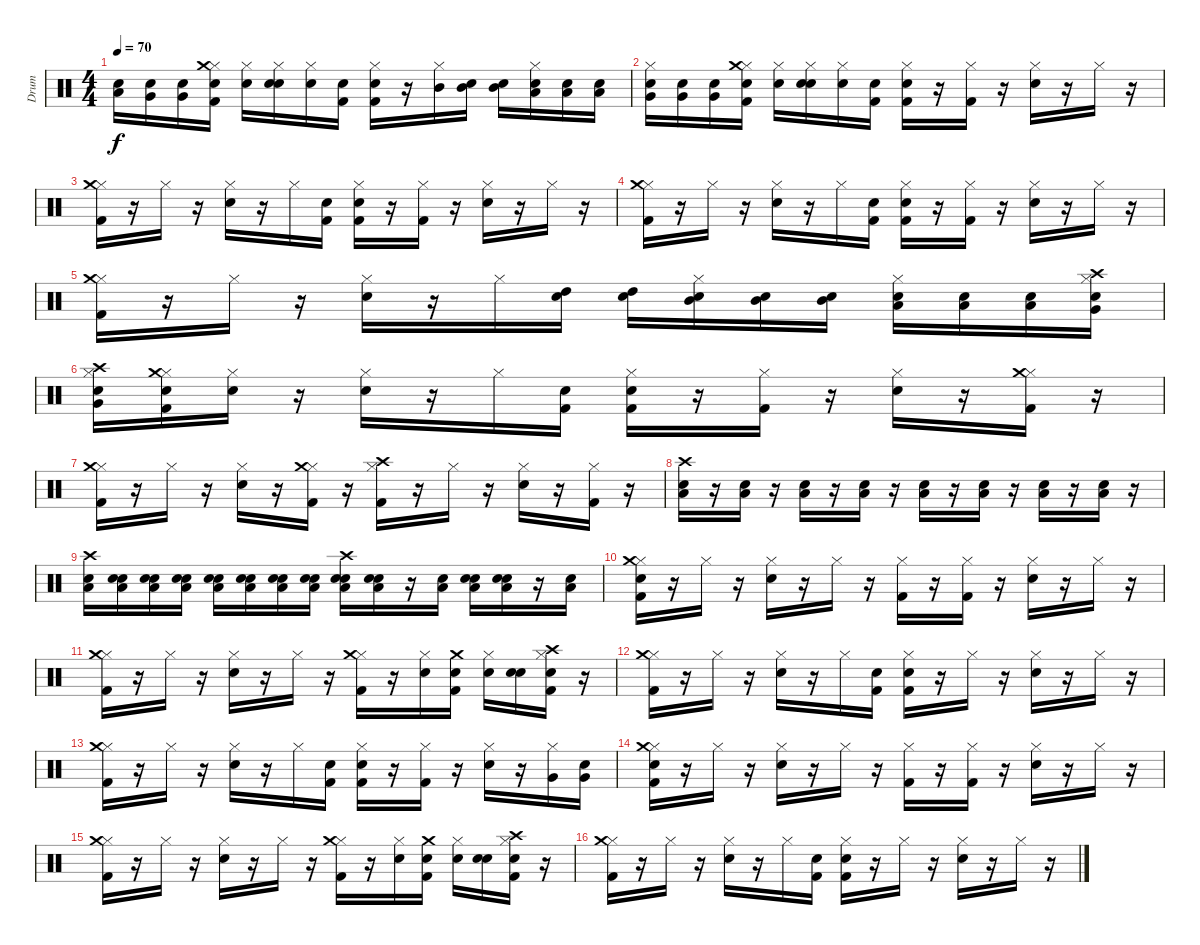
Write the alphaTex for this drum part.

\track ("Drum" "Drum") {instrument percussion}
\staff {score}
\articulation defaults
\ts (4 4)
\tempo 70
\clef neutral
\ks c
("Snare (hit)" "Low Tom (hit)").16{dy f} ("Snare (hit)" "Very Low Tom (hit)").16 ("Snare (hit)" "Very Low Tom (hit)").16 ("Snare (hit)" "Kick (hit) 2" "Hi-Hat (closed)" "Crash medium (hit)").16 ("Snare (hit)" "Hi-Hat (closed)").16 ("Snare (hit)" "Hi-Hat (closed)" "Snare (hit) 2").16 ("Snare (hit)" "Hi-Hat (closed)").16 ("Snare (hit)" "Kick (hit) 2").16 ("Snare (hit)" "Kick (hit) 2" "Hi-Hat (closed)").16 r.16 ("Hi-Hat (closed)" "Mid Tom (hit)").16 ("Snare (hit)" "Mid Tom (hit)").16 ("Snare (hit)" "Mid Tom (hit)").16 ("Snare (hit)" "Hi-Hat (closed)" "Low Tom (hit)").16 ("Snare (hit)" "Low Tom (hit)").16 ("Snare (hit)" "Low Tom (hit)").16 |
("Snare (hit)" "Hi-Hat (closed)" "Very Low Tom (hit)").16 ("Snare (hit)" "Very Low Tom (hit)").16 ("Snare (hit)" "Very Low Tom (hit)").16 ("Snare (hit)" "Kick (hit) 2" "Hi-Hat (closed)" "Crash medium (hit)").16 ("Snare (hit)" "Hi-Hat (closed)").16 ("Snare (hit)" "Hi-Hat (closed)" "Snare (hit) 2").16 ("Snare (hit)" "Hi-Hat (closed)").16 ("Snare (hit)" "Kick (hit) 2").16 ("Snare (hit)" "Kick (hit) 2" "Hi-Hat (closed)").16 r.16 ("Kick (hit) 2" "Hi-Hat (closed)").16 r.16 ("Hi-Hat (closed)" "Snare (hit) 2").16 r.16 "Hi-Hat (closed)".16 r.16 |
("Kick (hit) 2" "Hi-Hat (closed)" "Crash medium (hit)").16 r.16 "Hi-Hat (closed)".16 r.16 ("Hi-Hat (closed)" "Snare (hit) 2").16 r.16 "Hi-Hat (closed)".16 ("Snare (hit)" "Kick (hit) 2").16 ("Snare (hit)" "Kick (hit) 2" "Hi-Hat (closed)").16 r.16 ("Kick (hit) 2" "Hi-Hat (closed)").16 r.16 ("Hi-Hat (closed)" "Snare (hit) 2").16 r.16 "Hi-Hat (closed)".16 r.16 |
("Kick (hit) 2" "Hi-Hat (closed)" "Crash medium (hit)").16 r.16 "Hi-Hat (closed)".16 r.16 ("Hi-Hat (closed)" "Snare (hit) 2").16 r.16 "Hi-Hat (closed)".16 ("Snare (hit)" "Kick (hit) 2").16 ("Snare (hit)" "Kick (hit) 2" "Hi-Hat (closed)").16 r.16 ("Kick (hit) 2" "Hi-Hat (closed)").16 r.16 ("Hi-Hat (closed)" "Snare (hit) 2").16 r.16 "Hi-Hat (closed)".16 r.16 |
("Kick (hit) 2" "Hi-Hat (closed)" "Crash medium (hit)").16 r.16 "Hi-Hat (closed)".16 r.16 ("Hi-Hat (closed)" "Snare (hit) 2").16 r.16 "Hi-Hat (closed)".16 ("Snare (hit)" "High Tom (hit)").16 ("Snare (hit)" "High Tom (hit)").16 ("Snare (hit)" "Hi-Hat (closed)" "Mid Tom (hit)").16 ("Snare (hit)" "Mid Tom (hit)").16 ("Snare (hit)" "Mid Tom (hit)").16 ("Snare (hit)" "Hi-Hat (closed)" "Low Tom (hit)").16 ("Snare (hit)" "Low Tom (hit)").16 ("Snare (hit)" "Low Tom (hit)").16 ("Snare (hit)" "Hi-Hat (closed)" "Crash high (hit)" "Very Low Tom (hit)").16 |
("Snare (hit)" "Hi-Hat (closed)" "Crash high (hit)" "Very Low Tom (hit)").16 ("Snare (hit)" "Kick (hit) 2" "Hi-Hat (closed)" "Crash medium (hit)").16 ("Snare (hit)" "Hi-Hat (closed)").16 r.16 ("Hi-Hat (closed)" "Snare (hit) 2").16 r.16 "Hi-Hat (closed)".16 ("Snare (hit)" "Kick (hit) 2").16 ("Snare (hit)" "Kick (hit) 2" "Hi-Hat (closed)").16 r.16 ("Kick (hit) 2" "Hi-Hat (closed)").16 r.16 ("Hi-Hat (closed)" "Snare (hit) 2").16 r.16 ("Kick (hit) 2" "Hi-Hat (closed)" "Crash medium (hit)").16 r.16 |
("Kick (hit) 2" "Hi-Hat (closed)" "Crash medium (hit)").16 r.16 "Hi-Hat (closed)".16 r.16 ("Hi-Hat (closed)" "Snare (hit) 2").16 r.16 ("Kick (hit) 2" "Hi-Hat (closed)" "Crash medium (hit)").16 r.16 ("Kick (hit) 2" "Hi-Hat (closed)" "Crash high (hit)").16 r.16 "Hi-Hat (closed)".16 r.16 ("Hi-Hat (closed)" "Snare (hit) 2").16 r.16 ("Kick (hit) 2" "Hi-Hat (closed)").16 r.16 |
("Crash high (hit)" "Snare (hit) 2" "Low Tom (hit)").16 r.16 ("Snare (hit) 2" "Low Tom (hit)").16 r.16 ("Snare (hit) 2" "Low Tom (hit)").16 r.16 ("Snare (hit) 2" "Low Tom (hit)").16 r.16 ("Snare (hit) 2" "Low Tom (hit)").16 r.16 ("Snare (hit) 2" "Low Tom (hit)").16 r.16 ("Snare (hit) 2" "Low Tom (hit)").16 r.16 ("Snare (hit) 2" "Low Tom (hit)").16 r.16 |
("Crash high (hit)" "Snare (hit) 2" "Low Tom (hit)").16 ("Snare (hit)" "Snare (hit) 2" "Low Tom (hit)").16 ("Snare (hit)" "Snare (hit) 2" "Low Tom (hit)").16 ("Snare (hit)" "Snare (hit) 2" "Low Tom (hit)").16 ("Snare (hit)" "Snare (hit) 2" "Low Tom (hit)").16 ("Snare (hit)" "Snare (hit) 2" "Low Tom (hit)").16 ("Snare (hit)" "Snare (hit) 2" "Low Tom (hit)").16 ("Snare (hit)" "Snare (hit) 2" "Low Tom (hit)").16 ("Snare (hit)" "Crash high (hit)" "Snare (hit) 2" "Low Tom (hit)").16 ("Snare (hit)" "Snare (hit) 2" "Low Tom (hit)").16 r.16 ("Snare (hit) 2" "Low Tom (hit)").16 ("Snare (hit)" "Snare (hit) 2" "Low Tom (hit)").16 ("Snare (hit)" "Snare (hit) 2" "Low Tom (hit)").16 r.16 ("Snare (hit) 2" "Low Tom (hit)").16 |
("Snare (hit)" "Kick (hit) 2" "Hi-Hat (closed)" "Crash medium (hit)").16 r.16 "Hi-Hat (closed)".16 r.16 ("Hi-Hat (closed)" "Snare (hit) 2").16 r.16 "Hi-Hat (closed)".16 r.16 ("Kick (hit) 2" "Hi-Hat (closed)").16 r.16 ("Kick (hit) 2" "Hi-Hat (closed)").16 r.16 ("Hi-Hat (closed)" "Snare (hit) 2").16 r.16 "Hi-Hat (closed)".16 r.16 |
("Kick (hit) 2" "Hi-Hat (closed)" "Crash medium (hit)").16 r.16 "Hi-Hat (closed)".16 r.16 ("Hi-Hat (closed)" "Snare (hit) 2").16 r.16 "Hi-Hat (closed)".16 r.16 ("Kick (hit) 2" "Hi-Hat (closed)" "Crash medium (hit)").16 r.16 ("Hi-Hat (closed)" "Snare (hit) 2").16 ("Snare (hit)" "Kick (hit) 2" "Crash medium (hit)").16 ("Snare (hit)" "Hi-Hat (closed)").16 ("Snare (hit)" "Snare (hit) 2").16 ("Snare (hit)" "Kick (hit) 2" "Hi-Hat (closed)" "Crash high (hit)").16 r.16 |
("Kick (hit) 2" "Hi-Hat (closed)" "Crash medium (hit)").16 r.16 "Hi-Hat (closed)".16 r.16 ("Hi-Hat (closed)" "Snare (hit) 2").16 r.16 "Hi-Hat (closed)".16 ("Snare (hit)" "Kick (hit) 2").16 ("Snare (hit)" "Kick (hit) 2" "Hi-Hat (closed)").16 r.16 "Hi-Hat (closed)".16 r.16 ("Hi-Hat (closed)" "Snare (hit) 2").16 r.16 "Hi-Hat (closed)".16 r.16 |
("Kick (hit) 2" "Hi-Hat (closed)" "Crash medium (hit)").16 r.16 "Hi-Hat (closed)".16 r.16 ("Hi-Hat (closed)" "Snare (hit) 2").16 r.16 "Hi-Hat (closed)".16 ("Snare (hit)" "Kick (hit) 2").16 ("Snare (hit)" "Kick (hit) 2" "Hi-Hat (closed)").16 r.16 ("Kick (hit) 2" "Hi-Hat (closed)").16 r.16 ("Hi-Hat (closed)" "Snare (hit) 2").16 r.16 ("Hi-Hat (closed)" "Very Low Tom (hit)").16 ("Snare (hit)" "Very Low Tom (hit)").16 |
("Snare (hit)" "Kick (hit) 2" "Hi-Hat (closed)" "Crash medium (hit)").16 r.16 "Hi-Hat (closed)".16 r.16 ("Hi-Hat (closed)" "Snare (hit) 2").16 r.16 "Hi-Hat (closed)".16 r.16 ("Kick (hit) 2" "Hi-Hat (closed)").16 r.16 ("Kick (hit) 2" "Hi-Hat (closed)").16 r.16 ("Hi-Hat (closed)" "Snare (hit) 2").16 r.16 "Hi-Hat (closed)".16 r.16 |
("Kick (hit) 2" "Hi-Hat (closed)" "Crash medium (hit)").16 r.16 "Hi-Hat (closed)".16 r.16 ("Hi-Hat (closed)" "Snare (hit) 2").16 r.16 "Hi-Hat (closed)".16 r.16 ("Kick (hit) 2" "Hi-Hat (closed)" "Crash medium (hit)").16 r.16 ("Hi-Hat (closed)" "Snare (hit) 2").16 ("Snare (hit)" "Kick (hit) 2" "Crash medium (hit)").16 ("Snare (hit)" "Hi-Hat (closed)").16 ("Snare (hit)" "Snare (hit) 2").16 ("Snare (hit)" "Kick (hit) 2" "Hi-Hat (closed)" "Crash high (hit)").16 r.16 |
("Kick (hit) 2" "Hi-Hat (closed)" "Crash medium (hit)").16 r.16 "Hi-Hat (closed)".16 r.16 ("Hi-Hat (closed)" "Snare (hit) 2").16 r.16 "Hi-Hat (closed)".16 ("Snare (hit)" "Kick (hit) 2").16 ("Snare (hit)" "Kick (hit) 2" "Hi-Hat (closed)").16 r.16 "Hi-Hat (closed)".16 r.16 ("Hi-Hat (closed)" "Snare (hit) 2").16 r.16 "Hi-Hat (closed)".16 r.16
